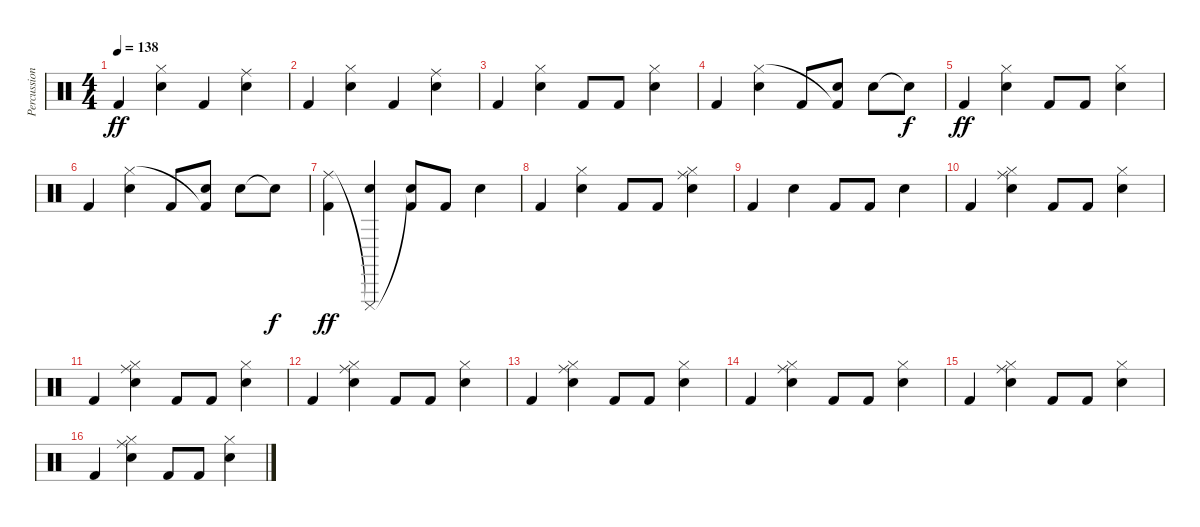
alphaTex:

\track ("Percussion" "Percussion") {instrument percussion}
\staff {score}
\articulation defaults
\ts (4 4)
\tempo 138
\clef neutral
\ks c "Kick (hit) 2".4{dy ff}
("Snare (hit) 2" "Hi-Hat (closed)").4 "Kick (hit) 2".4 ("Ride (middle)" "Snare (hit) 2").4 |
"Kick (hit) 2".4 ("Snare (hit) 2" "Hi-Hat (closed)").4 "Kick (hit) 2".4 ("Ride (middle)" "Snare (hit) 2").4 |
"Kick (hit) 2".4 ("Snare (hit) 2" "Hi-Hat (closed)").4 "Kick (hit) 2".8 "Kick (hit) 2".8 ("Snare (hit) 2" "Hi-Hat (closed)").4 |
"Kick (hit) 2".4 ("Snare (hit) 2" "Hi-Hat (closed)").4 "Kick (hit) 2".8 ("Electric Snare (hit)" "Kick (hit) 2"{t}).8 "Electric Snare (hit)".8 "Electric Snare (hit)"{t}.8{dy f} |
"Kick (hit) 2".4{dy ff} ("Snare (hit) 2" "Hi-Hat (closed)").4 "Kick (hit) 2".8 "Kick (hit) 2".8 ("Snare (hit) 2" "Hi-Hat (closed)").4 |
"Kick (hit) 2".4 ("Snare (hit) 2" "Hi-Hat (closed)").4 "Kick (hit) 2".8 ("Electric Snare (hit)" "Kick (hit) 2"{t}).8 "Electric Snare (hit)".8 "Electric Snare (hit)"{t}.8{dy f} |
("Kick (hit) 2" "Ride (middle)").4{dy ff} ("Snare (hit) 2" "Cuica (mute)"{t}).4 ("Kick (hit) 2" "Snare (hit)"{t}).8 "Kick (hit) 2".8 "Snare (hit) 2".4 |
"Kick (hit) 2".4 ("Snare (hit) 2" "Hi-Hat (closed)").4 "Kick (hit) 2".8 "Kick (hit) 2".8 ("Ride (middle)" "Snare (hit) 2" "Hi-Hat (closed)").4 |
"Kick (hit) 2".4 "Snare (hit) 2".4 "Kick (hit) 2".8 "Kick (hit) 2".8 "Snare (hit) 2".4 |
"Kick (hit) 2".4 ("Ride (middle)" "Snare (hit) 2" "Hi-Hat (closed)").4 "Kick (hit) 2".8 "Kick (hit) 2".8 ("Snare (hit) 2" "Hi-Hat (closed)").4 |
"Kick (hit) 2".4 ("Ride (middle)" "Snare (hit) 2" "Hi-Hat (closed)").4 "Kick (hit) 2".8 "Kick (hit) 2".8 ("Snare (hit) 2" "Hi-Hat (closed)").4 |
"Kick (hit) 2".4 ("Ride (middle)" "Snare (hit) 2" "Hi-Hat (closed)").4 "Kick (hit) 2".8 "Kick (hit) 2".8 ("Snare (hit) 2" "Hi-Hat (closed)").4 |
"Kick (hit) 2".4 ("Ride (middle)" "Snare (hit) 2" "Hi-Hat (closed)").4 "Kick (hit) 2".8 "Kick (hit) 2".8 ("Snare (hit) 2" "Hi-Hat (closed)").4 |
"Kick (hit) 2".4 ("Ride (middle)" "Snare (hit) 2" "Hi-Hat (closed)").4 "Kick (hit) 2".8 "Kick (hit) 2".8 ("Snare (hit) 2" "Hi-Hat (closed)").4 |
"Kick (hit) 2".4 ("Ride (middle)" "Snare (hit) 2" "Hi-Hat (closed)").4 "Kick (hit) 2".8 "Kick (hit) 2".8 ("Snare (hit) 2" "Hi-Hat (closed)").4 |
"Kick (hit) 2".4 ("Ride (middle)" "Snare (hit) 2" "Hi-Hat (closed)").4 "Kick (hit) 2".8 "Kick (hit) 2".8 ("Snare (hit) 2" "Hi-Hat (closed)").4
